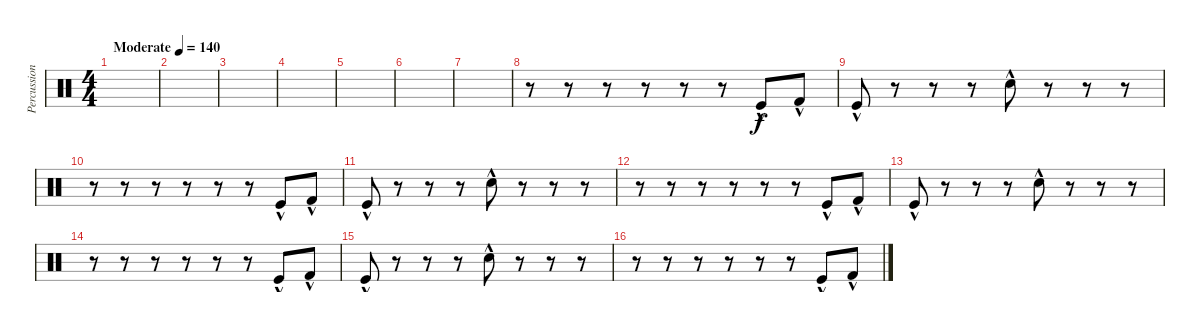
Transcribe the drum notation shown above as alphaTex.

\track ("Percussions" "Percussion") {instrument percussion}
\staff {score}
\articulation defaults
\ts (4 4)
\tempo (140 "Moderate")
\clef neutral
\ks c
|
|
|
|
|
|
|
r.8 r.8 r.8 r.8 r.8 r.8 "Kick (hit)"{hac}.8 "Kick (hit) 2"{hac}.8 |
"Kick (hit)"{hac}.8 r.8 r.8 r.8 "Electric Snare (hit)"{hac}.8 r.8 r.8 r.8 |
r.8 r.8 r.8 r.8 r.8 r.8 "Kick (hit)"{hac}.8 "Kick (hit) 2"{hac}.8 |
"Kick (hit)"{hac}.8 r.8 r.8 r.8 "Electric Snare (hit)"{hac}.8 r.8 r.8 r.8 |
r.8 r.8 r.8 r.8 r.8 r.8 "Kick (hit)"{hac}.8 "Kick (hit) 2"{hac}.8 |
"Kick (hit)"{hac}.8 r.8 r.8 r.8 "Electric Snare (hit)"{hac}.8 r.8 r.8 r.8 |
r.8 r.8 r.8 r.8 r.8 r.8 "Kick (hit)"{hac}.8 "Kick (hit) 2"{hac}.8 |
"Kick (hit)"{hac}.8 r.8 r.8 r.8 "Electric Snare (hit)"{hac}.8 r.8 r.8 r.8 |
r.8 r.8 r.8 r.8 r.8 r.8 "Kick (hit)"{hac}.8 "Kick (hit) 2"{hac}.8
